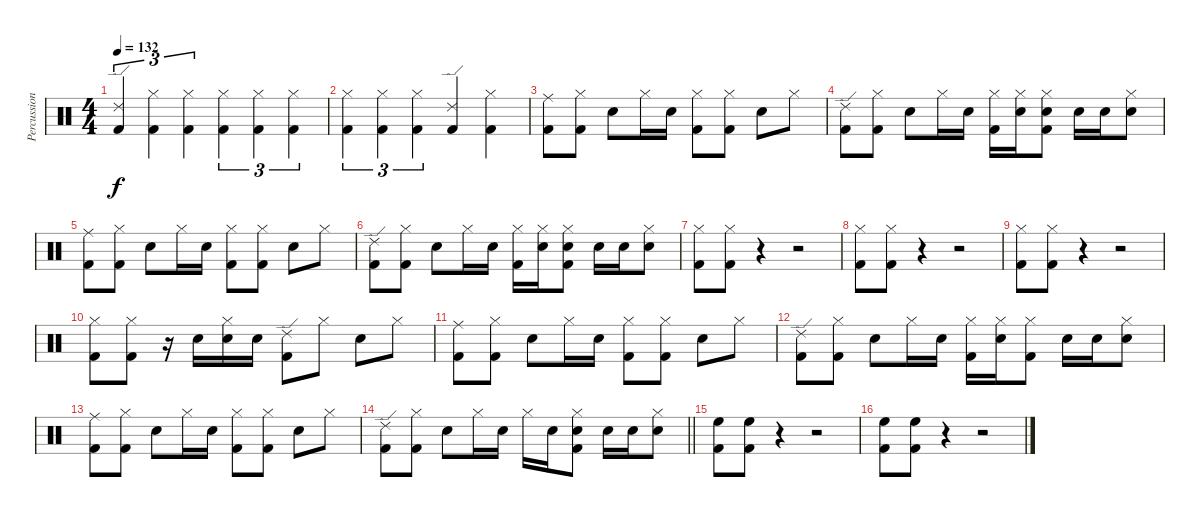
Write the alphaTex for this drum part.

\track ("Percussions" "Percussion") {instrument percussion}
\staff {score}
\articulation defaults
\ts (4 4)
\tempo 132
\clef neutral
\ks c
("Ride (edge) 2" "Kick (hit) 2").4{tu (3 2) dy f} ("Hi-Hat (closed)" "Kick (hit) 2").4{tu (3 2)} ("Hi-Hat (closed)" "Kick (hit) 2").4{tu (3 2)} ("Hi-Hat (closed)" "Kick (hit) 2").4{tu (3 2)} ("Hi-Hat (closed)" "Kick (hit) 2").4{tu (3 2)} ("Hi-Hat (closed)" "Kick (hit) 2").4{tu (3 2)} |
("Hi-Hat (closed)" "Kick (hit) 2").4{tu (3 2)} ("Hi-Hat (closed)" "Kick (hit) 2").4{tu (3 2)} ("Hi-Hat (closed)" "Kick (hit) 2").4{tu (3 2)} ("Ride (edge) 2" "Kick (hit) 2").4 ("Hi-Hat (closed)" "Kick (hit) 2").4 |
("Ride (middle)" "Kick (hit) 2").8 ("Hi-Hat (closed)" "Kick (hit) 2").8 "Snare (hit) 2".8 "Hi-Hat (closed)".16 "Snare (hit) 2".16 ("Hi-Hat (closed)" "Kick (hit) 2").8 ("Hi-Hat (closed)" "Kick (hit) 2").8 "Snare (hit) 2".8 "Hi-Hat (closed)".8 |
("Ride (edge) 2" "Kick (hit) 2").8 ("Hi-Hat (closed)" "Kick (hit) 2").8 "Snare (hit) 2".8 "Hi-Hat (closed)".16 "Snare (hit) 2".16 ("Hi-Hat (closed)" "Kick (hit) 2").16 ("Hi-Hat (closed)" "Snare (hit) 2").16 ("Hi-Hat (closed)" "Snare (hit) 2" "Kick (hit) 2").8 "Snare (hit) 2".16 "Snare (hit) 2".16 ("Hi-Hat (closed)" "Snare (hit) 2").8 |
("Ride (middle)" "Kick (hit) 2").8 ("Hi-Hat (closed)" "Kick (hit) 2").8 "Snare (hit) 2".8 "Hi-Hat (closed)".16 "Snare (hit) 2".16 ("Hi-Hat (closed)" "Kick (hit) 2").8 ("Hi-Hat (closed)" "Kick (hit) 2").8 "Snare (hit) 2".8 "Hi-Hat (closed)".8 |
("Ride (edge) 2" "Kick (hit) 2").8 ("Hi-Hat (closed)" "Kick (hit) 2").8 "Snare (hit) 2".8 "Hi-Hat (closed)".16 "Snare (hit) 2".16 ("Hi-Hat (closed)" "Kick (hit) 2").16 ("Hi-Hat (closed)" "Snare (hit) 2").16 ("Hi-Hat (closed)" "Snare (hit) 2" "Kick (hit) 2").8 "Snare (hit) 2".16 "Snare (hit) 2".16 ("Hi-Hat (closed)" "Snare (hit) 2").8 |
("Hi-Hat (closed)" "Kick (hit) 2").8 ("Hi-Hat (closed)" "Kick (hit) 2").8 r.4 r.2 |
("Hi-Hat (closed)" "Kick (hit) 2").8 ("Hi-Hat (closed)" "Kick (hit) 2").8 r.4 r.2 |
("Hi-Hat (closed)" "Kick (hit) 2").8 ("Hi-Hat (closed)" "Kick (hit) 2").8 r.4 r.2 |
("Hi-Hat (closed)" "Kick (hit) 2").8 ("Hi-Hat (closed)" "Kick (hit) 2").8 r.16 "Snare (hit) 2".16 ("Hi-Hat (closed)" "Snare (hit) 2").16 "Snare (hit) 2".16 ("Ride (edge) 2" "Kick (hit) 2").8 "Hi-Hat (closed)".8 "Snare (hit) 2".8 "Hi-Hat (closed)".8 |
("Ride (middle)" "Kick (hit) 2").8 ("Hi-Hat (closed)" "Kick (hit) 2").8 "Snare (hit) 2".8 "Hi-Hat (closed)".16 "Snare (hit) 2".16 ("Hi-Hat (closed)" "Kick (hit) 2").8 ("Hi-Hat (closed)" "Kick (hit) 2").8 "Snare (hit) 2".8 "Hi-Hat (closed)".8 |
("Ride (edge) 2" "Kick (hit) 2").8 ("Hi-Hat (closed)" "Kick (hit) 2").8 "Snare (hit) 2".8 "Hi-Hat (closed)".16 "Snare (hit) 2".16 ("Hi-Hat (closed)" "Kick (hit) 2").16 ("Hi-Hat (closed)" "Snare (hit) 2").16 ("Hi-Hat (closed)" "Kick (hit) 2").8 "Snare (hit) 2".16 "Snare (hit) 2".16 ("Hi-Hat (closed)" "Snare (hit) 2").8 |
("Ride (middle)" "Kick (hit) 2").8 ("Hi-Hat (closed)" "Kick (hit) 2").8 "Snare (hit) 2".8 "Hi-Hat (closed)".16 "Snare (hit) 2".16 ("Hi-Hat (closed)" "Kick (hit) 2").8 ("Hi-Hat (closed)" "Kick (hit) 2").8 "Snare (hit) 2".8 "Hi-Hat (closed)".8 |
\barLineRight lightlight
("Ride (edge) 2" "Kick (hit) 2").8 ("Hi-Hat (closed)" "Kick (hit) 2").8 "Snare (hit) 2".8 "Hi-Hat (closed)".16 "Snare (hit) 2".16 "Hi-Hat (closed)".16 "Snare (hit) 2".16 ("Hi-Hat (closed)" "Snare (hit) 2" "Kick (hit) 2").8 "Snare (hit) 2".16 "Snare (hit) 2".16 ("Hi-Hat (closed)" "Snare (hit) 2").8 |
("High Floor Tom (hit)" "Kick (hit) 2").8 ("High Floor Tom (hit)" "Kick (hit) 2").8 r.4 r.2 |
("High Floor Tom (hit)" "Kick (hit) 2").8 ("High Floor Tom (hit)" "Kick (hit) 2").8 r.4 r.2
